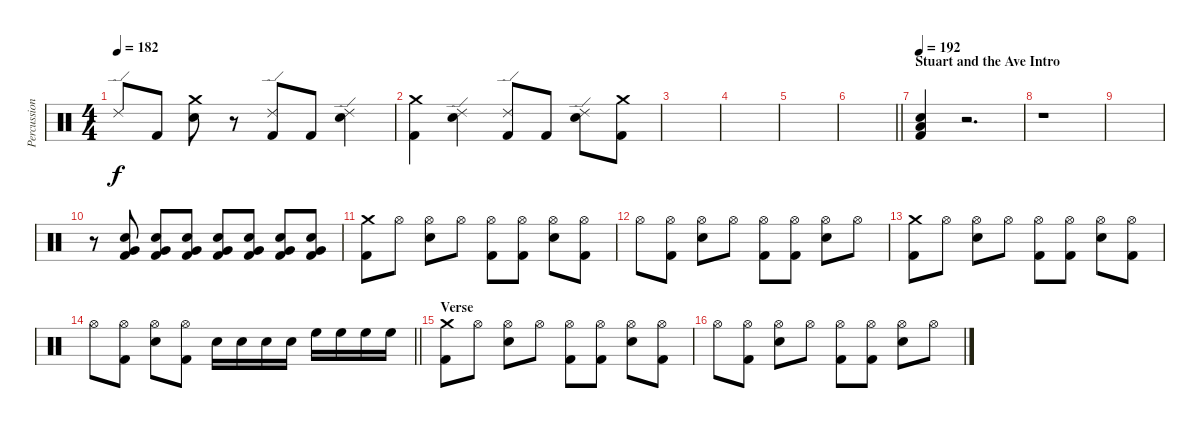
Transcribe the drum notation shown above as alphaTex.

\track ("Percussion" "Percussion") {instrument percussion}
\staff {score}
\articulation defaults
\ts (4 4)
\tempo 182
\clef neutral
\ks c "Ride (edge) 2".8{dy f} "Kick (hit) 2".8
("Crash medium (hit)" "Electric Snare (hit)").8 r.8 ("Ride (edge) 2" "Kick (hit) 2").8 "Kick (hit) 2".8 ("Ride (edge) 2" "Electric Snare (hit)").4 |
("Crash medium (hit)" "Kick (hit) 2").4 ("Ride (edge) 2" "Electric Snare (hit)").4 ("Ride (edge) 2" "Kick (hit) 2").8 "Kick (hit) 2".8 ("Ride (edge) 2" "Electric Snare (hit)").8 ("Crash medium (hit)" "Kick (hit) 2").8 |
|
|
|
\barLineRight lightlight
|
\section ("" "Stuart and the Ave Intro")
\tempo 192
("Electric Snare (hit)" "Low Floor Tom (hit)" "Kick (hit) 2").4 r.2{d} |
r.1 |
|
r.8 ("Very Low Tom (hit)" "Electric Snare (hit)" "Kick (hit) 2").8 ("Very Low Tom (hit)" "Electric Snare (hit)" "Kick (hit) 2").8 ("Very Low Tom (hit)" "Electric Snare (hit)" "Kick (hit) 2").8 ("Very Low Tom (hit)" "Electric Snare (hit)" "Kick (hit) 2").8 ("Very Low Tom (hit)" "Electric Snare (hit)" "Kick (hit) 2").8 ("Very Low Tom (hit)" "Electric Snare (hit)" "Kick (hit) 2").8 ("Very Low Tom (hit)" "Electric Snare (hit)" "Kick (hit) 2").8 |
("Crash medium (hit)" "Kick (hit) 2").8 "Hi-Hat (open)".8 ("Hi-Hat (open)" "Electric Snare (hit)").8 "Hi-Hat (open)".8 ("Hi-Hat (open)" "Kick (hit) 2").8 ("Hi-Hat (open)" "Kick (hit) 2").8 ("Hi-Hat (open)" "Electric Snare (hit)").8 ("Hi-Hat (open)" "Kick (hit) 2").8 |
"Hi-Hat (open)".8 ("Hi-Hat (open)" "Kick (hit) 2").8 ("Hi-Hat (open)" "Electric Snare (hit)").8 "Hi-Hat (open)".8 ("Hi-Hat (open)" "Kick (hit) 2").8 ("Hi-Hat (open)" "Kick (hit) 2").8 ("Hi-Hat (open)" "Electric Snare (hit)").8 "Hi-Hat (open)".8 |
("Crash medium (hit)" "Kick (hit) 2").8 "Hi-Hat (open)".8 ("Hi-Hat (open)" "Electric Snare (hit)").8 "Hi-Hat (open)".8 ("Hi-Hat (open)" "Kick (hit) 2").8 ("Hi-Hat (open)" "Kick (hit) 2").8 ("Hi-Hat (open)" "Electric Snare (hit)").8 ("Hi-Hat (open)" "Kick (hit) 2").8 |
\barLineRight lightlight "Hi-Hat (open)".8
("Hi-Hat (open)" "Kick (hit) 2").8 ("Hi-Hat (open)" "Electric Snare (hit)").8 ("Hi-Hat (open)" "Kick (hit) 2").8 "Electric Snare (hit)".16 "Electric Snare (hit)".16 "Electric Snare (hit)".16 "Electric Snare (hit)".16 "High Floor Tom (hit)".16 "High Floor Tom (hit)".16 "High Floor Tom (hit)".16 "High Floor Tom (hit)".16 |
\section ("" "Verse")
("Crash medium (hit)" "Kick (hit) 2").8 "Hi-Hat (open)".8 ("Hi-Hat (open)" "Electric Snare (hit)").8 "Hi-Hat (open)".8 ("Hi-Hat (open)" "Kick (hit) 2").8 ("Hi-Hat (open)" "Kick (hit) 2").8 ("Hi-Hat (open)" "Electric Snare (hit)").8 ("Hi-Hat (open)" "Kick (hit) 2").8 |
"Hi-Hat (open)".8 ("Hi-Hat (open)" "Kick (hit) 2").8 ("Hi-Hat (open)" "Electric Snare (hit)").8 "Hi-Hat (open)".8 ("Hi-Hat (open)" "Kick (hit) 2").8 ("Hi-Hat (open)" "Kick (hit) 2").8 ("Hi-Hat (open)" "Electric Snare (hit)").8 "Hi-Hat (open)".8
